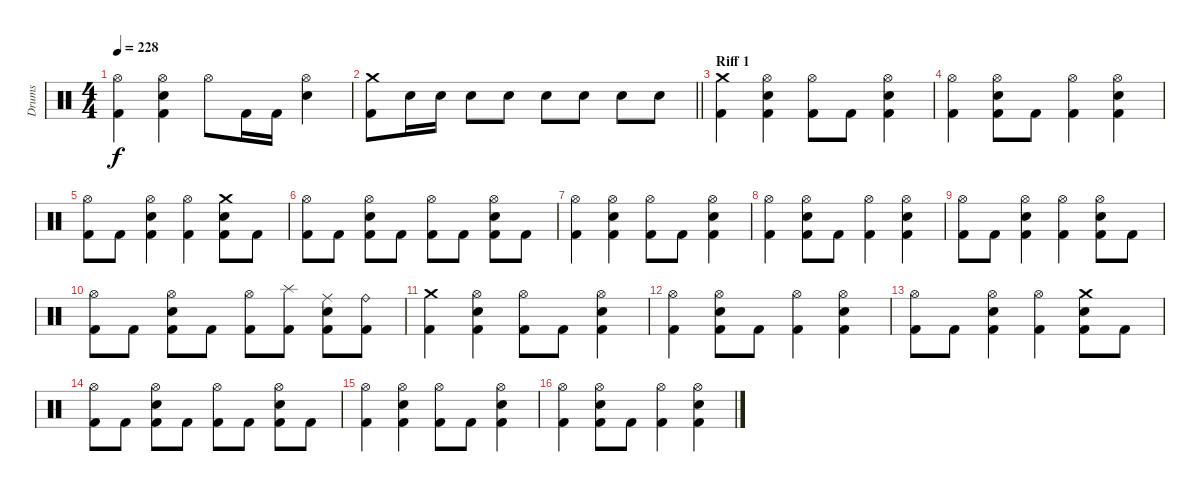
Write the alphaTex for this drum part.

\track ("Drums" "Drums") {instrument percussion}
\staff {score}
\articulation defaults
\ts (4 4)
\tempo 228
\clef neutral
\ks c
("Hi-Hat (open)" "Kick (hit) 2").4{dy f} ("Electric Snare (hit)" "Kick (hit) 2" "Hi-Hat (open)").4 "Hi-Hat (open)".8 "Kick (hit) 2".16 "Kick (hit) 2".16 ("Hi-Hat (open)" "Electric Snare (hit)").4 |
\barLineRight lightlight
("Crash medium (hit)" "Kick (hit) 2").8 "Electric Snare (hit)".16 "Electric Snare (hit)".16 "Electric Snare (hit)".8 "Electric Snare (hit)".8 "Electric Snare (hit)".8 "Electric Snare (hit)".8 "Electric Snare (hit)".8 "Electric Snare (hit)".8 |
\section ("" "Riff 1")
("Crash medium (hit)" "Kick (hit) 2").4 ("Electric Snare (hit)" "Hi-Hat (open)" "Kick (hit) 2").4 ("Hi-Hat (open)" "Kick (hit) 2").8 "Kick (hit) 2".8 ("Electric Snare (hit)" "Kick (hit) 2" "Hi-Hat (open)").4 |
("Hi-Hat (open)" "Kick (hit) 2").4 ("Hi-Hat (open)" "Kick (hit) 2" "Electric Snare (hit)").8 "Kick (hit) 2".8 ("Kick (hit) 2" "Hi-Hat (open)").4 ("Electric Snare (hit)" "Hi-Hat (open)" "Kick (hit) 2").4 |
("Hi-Hat (open)" "Kick (hit) 2").8 "Kick (hit) 2".8 ("Electric Snare (hit)" "Kick (hit) 2" "Hi-Hat (open)").4 ("Hi-Hat (open)" "Kick (hit) 2").4 ("Crash medium (hit)" "Kick (hit) 2" "Electric Snare (hit)").8 "Kick (hit) 2".8 |
("Kick (hit) 2" "Hi-Hat (open)").8 "Kick (hit) 2".8 ("Kick (hit) 2" "Electric Snare (hit)" "Hi-Hat (open)").8 "Kick (hit) 2".8 ("Kick (hit) 2" "Hi-Hat (open)").8 "Kick (hit) 2".8 ("Kick (hit) 2" "Electric Snare (hit)" "Hi-Hat (open)").8 "Kick (hit) 2".8 |
("Hi-Hat (open)" "Kick (hit) 2").4 ("Electric Snare (hit)" "Hi-Hat (open)" "Kick (hit) 2").4 ("Hi-Hat (open)" "Kick (hit) 2").8 "Kick (hit) 2".8 ("Electric Snare (hit)" "Kick (hit) 2" "Hi-Hat (open)").4 |
("Hi-Hat (open)" "Kick (hit) 2").4 ("Hi-Hat (open)" "Kick (hit) 2" "Electric Snare (hit)").8 "Kick (hit) 2".8 ("Kick (hit) 2" "Hi-Hat (open)").4 ("Electric Snare (hit)" "Hi-Hat (open)" "Kick (hit) 2").4 |
("Hi-Hat (open)" "Kick (hit) 2").8 "Kick (hit) 2".8 ("Electric Snare (hit)" "Kick (hit) 2" "Hi-Hat (open)").4 ("Hi-Hat (open)" "Kick (hit) 2").4 ("Hi-Hat (open)" "Kick (hit) 2" "Electric Snare (hit)").8 "Kick (hit) 2".8 |
("Kick (hit) 2" "Hi-Hat (open)").8 "Kick (hit) 2".8 ("Kick (hit) 2" "Electric Snare (hit)" "Hi-Hat (open)").8 "Kick (hit) 2".8 ("Kick (hit) 2" "Hi-Hat (open)").8 ("Kick (hit) 2" "Splash (hit)").8 ("Kick (hit) 2" "Electric Snare (hit)" "Ride (middle)").8 ("Kick (hit) 2" "Ride (bell)").8 |
("Crash medium (hit)" "Kick (hit) 2").4 ("Electric Snare (hit)" "Hi-Hat (open)" "Kick (hit) 2").4 ("Hi-Hat (open)" "Kick (hit) 2").8 "Kick (hit) 2".8 ("Electric Snare (hit)" "Kick (hit) 2" "Hi-Hat (open)").4 |
("Hi-Hat (open)" "Kick (hit) 2").4 ("Hi-Hat (open)" "Kick (hit) 2" "Electric Snare (hit)").8 "Kick (hit) 2".8 ("Kick (hit) 2" "Hi-Hat (open)").4 ("Electric Snare (hit)" "Hi-Hat (open)" "Kick (hit) 2").4 |
("Hi-Hat (open)" "Kick (hit) 2").8 "Kick (hit) 2".8 ("Electric Snare (hit)" "Kick (hit) 2" "Hi-Hat (open)").4 ("Hi-Hat (open)" "Kick (hit) 2").4 ("Crash medium (hit)" "Kick (hit) 2" "Electric Snare (hit)").8 "Kick (hit) 2".8 |
("Kick (hit) 2" "Hi-Hat (open)").8 "Kick (hit) 2".8 ("Kick (hit) 2" "Electric Snare (hit)" "Hi-Hat (open)").8 "Kick (hit) 2".8 ("Kick (hit) 2" "Hi-Hat (open)").8 "Kick (hit) 2".8 ("Kick (hit) 2" "Electric Snare (hit)" "Hi-Hat (open)").8 "Kick (hit) 2".8 |
("Hi-Hat (open)" "Kick (hit) 2").4 ("Electric Snare (hit)" "Hi-Hat (open)" "Kick (hit) 2").4 ("Hi-Hat (open)" "Kick (hit) 2").8 "Kick (hit) 2".8 ("Electric Snare (hit)" "Kick (hit) 2" "Hi-Hat (open)").4 |
("Hi-Hat (open)" "Kick (hit) 2").4 ("Hi-Hat (open)" "Kick (hit) 2" "Electric Snare (hit)").8 "Kick (hit) 2".8 ("Kick (hit) 2" "Hi-Hat (open)").4 ("Electric Snare (hit)" "Hi-Hat (open)" "Kick (hit) 2").4
